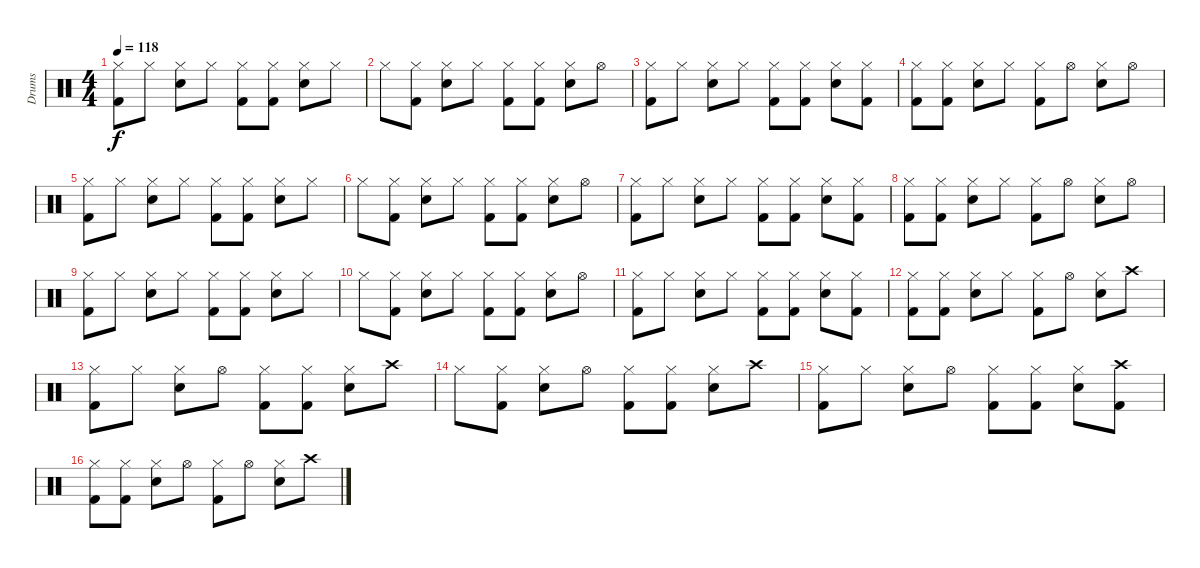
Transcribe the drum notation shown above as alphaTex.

\track ("Drums" "Drums") {solo instrument percussion}
\staff {score}
\articulation defaults
\ts (4 4)
\tempo 118
\clef neutral
\ks c
("Hi-Hat (closed)" "Kick (hit) 2").8{dy f} "Hi-Hat (closed)".8 ("Hi-Hat (closed)" "Snare (hit) 2").8 "Hi-Hat (closed)".8 ("Hi-Hat (closed)" "Kick (hit) 2").8 ("Hi-Hat (closed)" "Kick (hit) 2").8 ("Hi-Hat (closed)" "Snare (hit) 2").8 "Hi-Hat (closed)".8 |
"Hi-Hat (closed)".8 ("Hi-Hat (closed)" "Kick (hit) 2").8 ("Hi-Hat (closed)" "Snare (hit) 2").8 "Hi-Hat (closed)".8 ("Hi-Hat (closed)" "Kick (hit) 2").8 ("Hi-Hat (closed)" "Kick (hit) 2").8 ("Hi-Hat (closed)" "Snare (hit) 2").8 "Hi-Hat (open)".8 |
("Hi-Hat (closed)" "Kick (hit) 2").8 "Hi-Hat (closed)".8 ("Hi-Hat (closed)" "Snare (hit) 2").8 "Hi-Hat (closed)".8 ("Hi-Hat (closed)" "Kick (hit) 2").8 ("Hi-Hat (closed)" "Kick (hit) 2").8 ("Hi-Hat (closed)" "Snare (hit) 2").8 ("Hi-Hat (closed)" "Kick (hit) 2").8 |
("Hi-Hat (closed)" "Kick (hit) 2").8 ("Hi-Hat (closed)" "Kick (hit) 2").8 ("Hi-Hat (closed)" "Snare (hit) 2").8 "Hi-Hat (closed)".8 ("Hi-Hat (closed)" "Kick (hit) 2").8 "Hi-Hat (open)".8 ("Hi-Hat (closed)" "Snare (hit) 2").8 "Hi-Hat (open)".8 |
("Hi-Hat (closed)" "Kick (hit) 2").8 "Hi-Hat (closed)".8 ("Hi-Hat (closed)" "Snare (hit) 2").8 "Hi-Hat (closed)".8 ("Hi-Hat (closed)" "Kick (hit) 2").8 ("Hi-Hat (closed)" "Kick (hit) 2").8 ("Hi-Hat (closed)" "Snare (hit) 2").8 "Hi-Hat (closed)".8 |
"Hi-Hat (closed)".8 ("Hi-Hat (closed)" "Kick (hit) 2").8 ("Hi-Hat (closed)" "Snare (hit) 2").8 "Hi-Hat (closed)".8 ("Hi-Hat (closed)" "Kick (hit) 2").8 ("Hi-Hat (closed)" "Kick (hit) 2").8 ("Hi-Hat (closed)" "Snare (hit) 2").8 "Hi-Hat (open)".8 |
("Hi-Hat (closed)" "Kick (hit) 2").8 "Hi-Hat (closed)".8 ("Hi-Hat (closed)" "Snare (hit) 2").8 "Hi-Hat (closed)".8 ("Hi-Hat (closed)" "Kick (hit) 2").8 ("Hi-Hat (closed)" "Kick (hit) 2").8 ("Hi-Hat (closed)" "Snare (hit) 2").8 ("Hi-Hat (closed)" "Kick (hit) 2").8 |
("Hi-Hat (closed)" "Kick (hit) 2").8 ("Hi-Hat (closed)" "Kick (hit) 2").8 ("Hi-Hat (closed)" "Snare (hit) 2").8 "Hi-Hat (closed)".8 ("Hi-Hat (closed)" "Kick (hit) 2").8 "Hi-Hat (open)".8 ("Hi-Hat (closed)" "Snare (hit) 2").8 "Hi-Hat (open)".8 |
("Hi-Hat (closed)" "Kick (hit) 2").8 "Hi-Hat (closed)".8 ("Hi-Hat (closed)" "Snare (hit) 2").8 "Hi-Hat (closed)".8 ("Hi-Hat (closed)" "Kick (hit) 2").8 ("Hi-Hat (closed)" "Kick (hit) 2").8 ("Hi-Hat (closed)" "Snare (hit) 2").8 "Hi-Hat (closed)".8 |
"Hi-Hat (closed)".8 ("Hi-Hat (closed)" "Kick (hit) 2").8 ("Hi-Hat (closed)" "Snare (hit) 2").8 "Hi-Hat (closed)".8 ("Hi-Hat (closed)" "Kick (hit) 2").8 ("Hi-Hat (closed)" "Kick (hit) 2").8 ("Hi-Hat (closed)" "Snare (hit) 2").8 "Hi-Hat (open)".8 |
("Hi-Hat (closed)" "Kick (hit) 2").8 "Hi-Hat (closed)".8 ("Hi-Hat (closed)" "Snare (hit) 2").8 "Hi-Hat (closed)".8 ("Hi-Hat (closed)" "Kick (hit) 2").8 ("Hi-Hat (closed)" "Kick (hit) 2").8 ("Hi-Hat (closed)" "Snare (hit) 2").8 ("Hi-Hat (closed)" "Kick (hit) 2").8 |
("Hi-Hat (closed)" "Kick (hit) 2").8 ("Hi-Hat (closed)" "Kick (hit) 2").8 ("Hi-Hat (closed)" "Snare (hit) 2").8 "Hi-Hat (closed)".8 ("Hi-Hat (closed)" "Kick (hit) 2").8 "Hi-Hat (open)".8 ("Hi-Hat (closed)" "Snare (hit) 2").8 "Crash high (hit)".8 |
("Hi-Hat (closed)" "Kick (hit) 2").8 "Hi-Hat (closed)".8 ("Hi-Hat (closed)" "Snare (hit) 2").8 "Hi-Hat (open)".8 ("Hi-Hat (closed)" "Kick (hit) 2").8 ("Hi-Hat (closed)" "Kick (hit) 2").8 ("Hi-Hat (closed)" "Snare (hit) 2").8 "Crash high (hit)".8 |
"Hi-Hat (closed)".8 ("Hi-Hat (closed)" "Kick (hit) 2").8 ("Hi-Hat (closed)" "Snare (hit) 2").8 "Hi-Hat (open)".8 ("Hi-Hat (closed)" "Kick (hit) 2").8 ("Hi-Hat (closed)" "Kick (hit) 2").8 ("Hi-Hat (closed)" "Snare (hit) 2").8 "Crash high (hit)".8 |
("Hi-Hat (closed)" "Kick (hit) 2").8 "Hi-Hat (closed)".8 ("Hi-Hat (closed)" "Snare (hit) 2").8 "Hi-Hat (open)".8 ("Hi-Hat (closed)" "Kick (hit) 2").8 ("Hi-Hat (closed)" "Kick (hit) 2").8 ("Hi-Hat (closed)" "Snare (hit) 2").8 ("Crash high (hit)" "Kick (hit) 2").8 |
("Hi-Hat (closed)" "Kick (hit) 2").8 ("Hi-Hat (closed)" "Kick (hit) 2").8 ("Hi-Hat (closed)" "Snare (hit) 2").8 "Hi-Hat (open)".8 ("Hi-Hat (closed)" "Kick (hit) 2").8 "Hi-Hat (open)".8 ("Hi-Hat (closed)" "Snare (hit) 2").8 "Crash high (hit)".8
